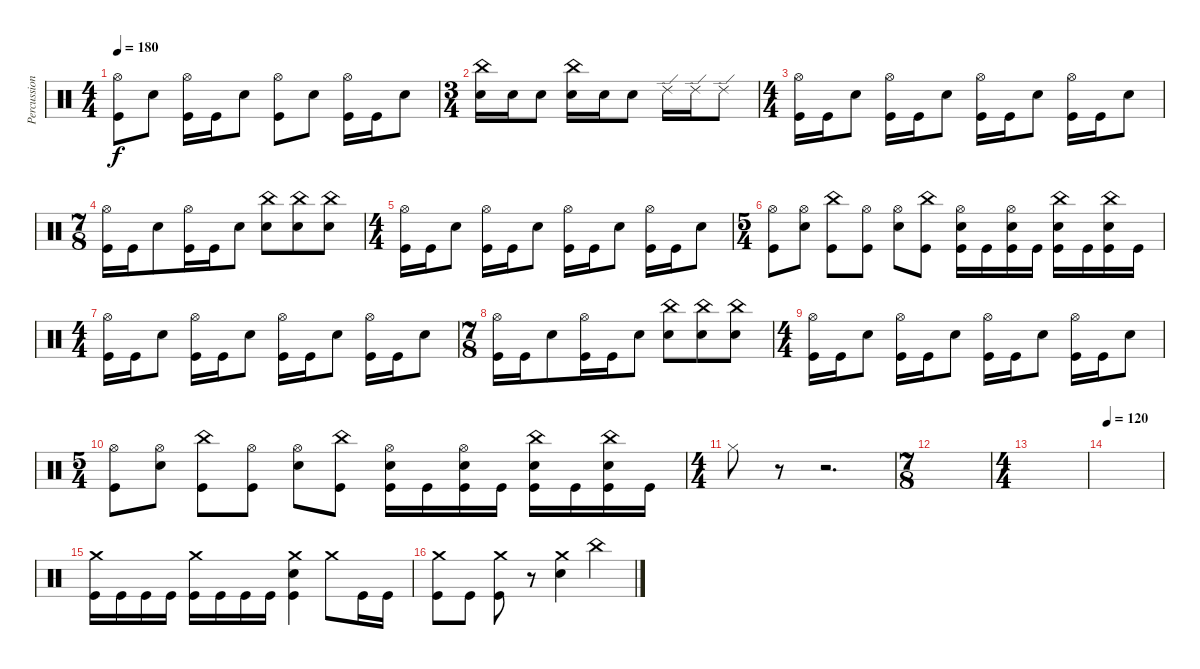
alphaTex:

\track ("Percussion" "Percussion") {instrument percussion}
\staff {score}
\articulation defaults
\ts (4 4)
\tempo 180
\clef neutral
\ks c
("Hi-Hat (open)" "Kick (hit)").8{dy f} "Snare (hit) 2".8 ("Hi-Hat (open)" "Kick (hit)").16 "Kick (hit)".16 "Snare (hit) 2".8 ("Hi-Hat (open)" "Kick (hit)").8 "Snare (hit) 2".8 ("Hi-Hat (open)" "Kick (hit)").16 "Kick (hit)".16 "Snare (hit) 2".8 |
\ts (3 4)
("China (hit)" "Snare (hit) 2").16 "Snare (hit) 2".16 "Snare (hit) 2".8 ("China (hit)" "Snare (hit) 2").16 "Snare (hit) 2".16 "Snare (hit) 2".8 "Ride (edge) 2".16 "Ride (edge) 2".16 "Ride (edge) 2".8 |
\ts (4 4)
("Hi-Hat (open)" "Kick (hit)").16 "Kick (hit)".16 "Snare (hit) 2".8 ("Hi-Hat (open)" "Kick (hit)").16 "Kick (hit)".16 "Snare (hit) 2".8 ("Hi-Hat (open)" "Kick (hit)").16 "Kick (hit)".16 "Snare (hit) 2".8 ("Hi-Hat (open)" "Kick (hit)").16 "Kick (hit)".16 "Snare (hit) 2".8 |
\ts (7 8)
("Hi-Hat (open)" "Kick (hit)").16 "Kick (hit)".16 "Snare (hit) 2".8 ("Hi-Hat (open)" "Kick (hit)").16 "Kick (hit)".16 "Snare (hit) 2".8 ("China (hit)" "Snare (hit) 2").8 ("China (hit)" "Snare (hit) 2").8 ("China (hit)" "Snare (hit) 2").8 |
\ts (4 4)
("Hi-Hat (open)" "Kick (hit)").16 "Kick (hit)".16 "Snare (hit) 2".8 ("Hi-Hat (open)" "Kick (hit)").16 "Kick (hit)".16 "Snare (hit) 2".8 ("Hi-Hat (open)" "Kick (hit)").16 "Kick (hit)".16 "Snare (hit) 2".8 ("Hi-Hat (open)" "Kick (hit)").16 "Kick (hit)".16 "Snare (hit) 2".8 |
\ts (5 4)
("Hi-Hat (open)" "Kick (hit)").8 ("Hi-Hat (open)" "Snare (hit) 2").8 ("China (hit)" "Kick (hit)").8 ("Hi-Hat (open)" "Kick (hit)").8 ("Hi-Hat (open)" "Snare (hit) 2").8 ("China (hit)" "Kick (hit)").8 ("Hi-Hat (open)" "Snare (hit) 2" "Kick (hit)").16 "Kick (hit)".16 ("Hi-Hat (open)" "Snare (hit) 2" "Kick (hit)").16 "Kick (hit)".16 ("China (hit)" "Snare (hit) 2" "Kick (hit)").16 "Kick (hit)".16 ("China (hit)" "Snare (hit) 2" "Kick (hit)").16 "Kick (hit)".16 |
\ts (4 4)
("Hi-Hat (open)" "Kick (hit)").16 "Kick (hit)".16 "Snare (hit) 2".8 ("Hi-Hat (open)" "Kick (hit)").16 "Kick (hit)".16 "Snare (hit) 2".8 ("Hi-Hat (open)" "Kick (hit)").16 "Kick (hit)".16 "Snare (hit) 2".8 ("Hi-Hat (open)" "Kick (hit)").16 "Kick (hit)".16 "Snare (hit) 2".8 |
\ts (7 8)
("Hi-Hat (open)" "Kick (hit)").16 "Kick (hit)".16 "Snare (hit) 2".8 ("Hi-Hat (open)" "Kick (hit)").16 "Kick (hit)".16 "Snare (hit) 2".8 ("China (hit)" "Snare (hit) 2").8 ("China (hit)" "Snare (hit) 2").8 ("China (hit)" "Snare (hit) 2").8 |
\ts (4 4)
("Hi-Hat (open)" "Kick (hit)").16 "Kick (hit)".16 "Snare (hit) 2".8 ("Hi-Hat (open)" "Kick (hit)").16 "Kick (hit)".16 "Snare (hit) 2".8 ("Hi-Hat (open)" "Kick (hit)").16 "Kick (hit)".16 "Snare (hit) 2".8 ("Hi-Hat (open)" "Kick (hit)").16 "Kick (hit)".16 "Snare (hit) 2".8 |
\ts (5 4)
("Hi-Hat (open)" "Kick (hit)").8 ("Hi-Hat (open)" "Snare (hit) 2").8 ("China (hit)" "Kick (hit)").8 ("Hi-Hat (open)" "Kick (hit)").8 ("Hi-Hat (open)" "Snare (hit) 2").8 ("China (hit)" "Kick (hit)").8 ("Hi-Hat (open)" "Snare (hit) 2" "Kick (hit)").16 "Kick (hit)".16 ("Hi-Hat (open)" "Snare (hit) 2" "Kick (hit)").16 "Kick (hit)".16 ("China (hit)" "Snare (hit) 2" "Kick (hit)").16 "Kick (hit)".16 ("China (hit)" "Snare (hit) 2" "Kick (hit)").16 "Kick (hit)".16 |
\ts (4 4)
"Hi-Hat (closed)".8 r.8 r.2{d} |
\ts (7 8)
|
\ts (4 4)
|
\tempo 120
|
("Crash medium (hit)" "Kick (hit)").16 "Kick (hit)".16 "Kick (hit)".16 "Kick (hit)".16 ("Crash medium (hit)" "Kick (hit)").16 "Kick (hit)".16 "Kick (hit)".16 "Kick (hit)".16 ("Crash medium (hit)" "Snare (hit) 2" "Kick (hit)").4 "Crash medium (hit)".8 "Kick (hit)".16 "Kick (hit)".16 |
("Crash medium (hit)" "Kick (hit)").8 "Kick (hit)".8 ("Crash medium (hit)" "Kick (hit)").8 r.8 ("Crash medium (hit)" "Snare (hit) 2").4 "China (hit)".4
